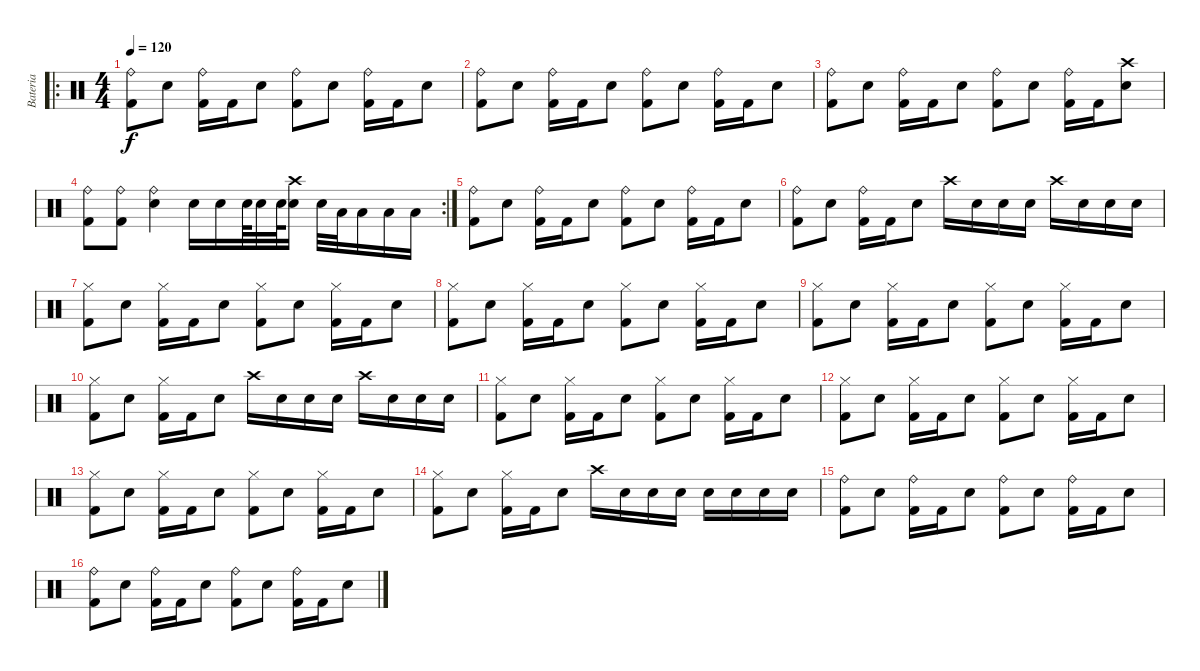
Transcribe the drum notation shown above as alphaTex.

\track ("Bateria" "Bateria") {instrument percussion}
\staff {score}
\articulation defaults
\ro
\ts (4 4)
\tempo 120
\clef neutral
\ks c
("Kick (hit) 2" "Ride (bell)").8{dy f} "Electric Snare (hit)".8 ("Kick (hit) 2" "Ride (bell)").16 "Kick (hit) 2".16 "Electric Snare (hit)".8 ("Kick (hit) 2" "Ride (bell)").8 "Electric Snare (hit)".8 ("Kick (hit) 2" "Ride (bell)").16 "Kick (hit) 2".16 "Electric Snare (hit)".8 |
("Kick (hit) 2" "Ride (bell)").8 "Electric Snare (hit)".8 ("Kick (hit) 2" "Ride (bell)").16 "Kick (hit) 2".16 "Electric Snare (hit)".8 ("Kick (hit) 2" "Ride (bell)").8 "Electric Snare (hit)".8 ("Kick (hit) 2" "Ride (bell)").16 "Kick (hit) 2".16 "Electric Snare (hit)".8 |
("Kick (hit) 2" "Ride (bell)").8 "Electric Snare (hit)".8 ("Kick (hit) 2" "Ride (bell)").16 "Kick (hit) 2".16 "Electric Snare (hit)".8 ("Kick (hit) 2" "Ride (bell)").8 "Electric Snare (hit)".8 ("Kick (hit) 2" "Ride (bell)").16 "Kick (hit) 2".16 ("Electric Snare (hit)" "Crash high (hit)").8 |
\rc 2
("Kick (hit) 2" "Ride (bell)").8 ("Kick (hit) 2" "Ride (bell)").8 ("Electric Snare (hit)" "Ride (bell)").4 "Electric Snare (hit)".16 "Electric Snare (hit)".16 "Electric Snare (hit)".64 "Electric Snare (hit)".32 "Electric Snare (hit)".64 ("Electric Snare (hit)" "Crash high (hit)").16 "Electric Snare (hit)".32 "Low Floor Tom (hit)".32 "Low Floor Tom (hit)".16 "Low Floor Tom (hit)".16 "Low Floor Tom (hit)".16 |
("Kick (hit) 2" "Ride (bell)").8 "Electric Snare (hit)".8 ("Kick (hit) 2" "Ride (bell)").16 "Kick (hit) 2".16 "Electric Snare (hit)".8 ("Kick (hit) 2" "Ride (bell)").8 "Electric Snare (hit)".8 ("Kick (hit) 2" "Ride (bell)").16 "Kick (hit) 2".16 "Electric Snare (hit)".8 |
("Kick (hit) 2" "Ride (bell)").8 "Electric Snare (hit)".8 ("Kick (hit) 2" "Ride (bell)").16 "Kick (hit) 2".16 "Electric Snare (hit)".8 "Crash high (hit)".16 "Electric Snare (hit)".16 "Electric Snare (hit)".16 "Electric Snare (hit)".16 "Crash high (hit)".16 "Electric Snare (hit)".16 "Electric Snare (hit)".16 "Electric Snare (hit)".16 |
("Kick (hit) 2" "Hi-Hat (closed)").8 "Electric Snare (hit)".8 ("Kick (hit) 2" "Hi-Hat (closed)").16 "Kick (hit) 2".16 "Electric Snare (hit)".8 ("Kick (hit) 2" "Hi-Hat (closed)").8 "Electric Snare (hit)".8 ("Kick (hit) 2" "Hi-Hat (closed)").16 "Kick (hit) 2".16 "Electric Snare (hit)".8 |
("Kick (hit) 2" "Hi-Hat (closed)").8 "Electric Snare (hit)".8 ("Kick (hit) 2" "Hi-Hat (closed)").16 "Kick (hit) 2".16 "Electric Snare (hit)".8 ("Kick (hit) 2" "Hi-Hat (closed)").8 "Electric Snare (hit)".8 ("Kick (hit) 2" "Hi-Hat (closed)").16 "Kick (hit) 2".16 "Electric Snare (hit)".8 |
("Kick (hit) 2" "Hi-Hat (closed)").8 "Electric Snare (hit)".8 ("Kick (hit) 2" "Hi-Hat (closed)").16 "Kick (hit) 2".16 "Electric Snare (hit)".8 ("Kick (hit) 2" "Hi-Hat (closed)").8 "Electric Snare (hit)".8 ("Kick (hit) 2" "Hi-Hat (closed)").16 "Kick (hit) 2".16 "Electric Snare (hit)".8 |
("Kick (hit) 2" "Hi-Hat (closed)").8 "Electric Snare (hit)".8 ("Kick (hit) 2" "Hi-Hat (closed)").16 "Kick (hit) 2".16 "Electric Snare (hit)".8 "Crash high (hit)".16 "Electric Snare (hit)".16 "Electric Snare (hit)".16 "Electric Snare (hit)".16 "Crash high (hit)".16 "Electric Snare (hit)".16 "Electric Snare (hit)".16 "Electric Snare (hit)".16 |
("Kick (hit) 2" "Hi-Hat (closed)").8 "Electric Snare (hit)".8 ("Kick (hit) 2" "Hi-Hat (closed)").16 "Kick (hit) 2".16 "Electric Snare (hit)".8 ("Kick (hit) 2" "Hi-Hat (closed)").8 "Electric Snare (hit)".8 ("Kick (hit) 2" "Hi-Hat (closed)").16 "Kick (hit) 2".16 "Electric Snare (hit)".8 |
("Kick (hit) 2" "Hi-Hat (closed)").8 "Electric Snare (hit)".8 ("Kick (hit) 2" "Hi-Hat (closed)").16 "Kick (hit) 2".16 "Electric Snare (hit)".8 ("Kick (hit) 2" "Hi-Hat (closed)").8 "Electric Snare (hit)".8 ("Kick (hit) 2" "Hi-Hat (closed)").16 "Kick (hit) 2".16 "Electric Snare (hit)".8 |
("Kick (hit) 2" "Hi-Hat (closed)").8 "Electric Snare (hit)".8 ("Kick (hit) 2" "Hi-Hat (closed)").16 "Kick (hit) 2".16 "Electric Snare (hit)".8 ("Kick (hit) 2" "Hi-Hat (closed)").8 "Electric Snare (hit)".8 ("Kick (hit) 2" "Hi-Hat (closed)").16 "Kick (hit) 2".16 "Electric Snare (hit)".8 |
("Kick (hit) 2" "Hi-Hat (closed)").8 "Electric Snare (hit)".8 ("Kick (hit) 2" "Hi-Hat (closed)").16 "Kick (hit) 2".16 "Electric Snare (hit)".8 "Crash high (hit)".16 "Electric Snare (hit)".16 "Electric Snare (hit)".16 "Electric Snare (hit)".16 "Electric Snare (hit)".16 "Electric Snare (hit)".16 "Electric Snare (hit)".16 "Electric Snare (hit)".16 |
("Kick (hit) 2" "Ride (bell)").8 "Electric Snare (hit)".8 ("Kick (hit) 2" "Ride (bell)").16 "Kick (hit) 2".16 "Electric Snare (hit)".8 ("Kick (hit) 2" "Ride (bell)").8 "Electric Snare (hit)".8 ("Kick (hit) 2" "Ride (bell)").16 "Kick (hit) 2".16 "Electric Snare (hit)".8 |
("Kick (hit) 2" "Ride (bell)").8 "Electric Snare (hit)".8 ("Kick (hit) 2" "Ride (bell)").16 "Kick (hit) 2".16 "Electric Snare (hit)".8 ("Kick (hit) 2" "Ride (bell)").8 "Electric Snare (hit)".8 ("Kick (hit) 2" "Ride (bell)").16 "Kick (hit) 2".16 "Electric Snare (hit)".8
